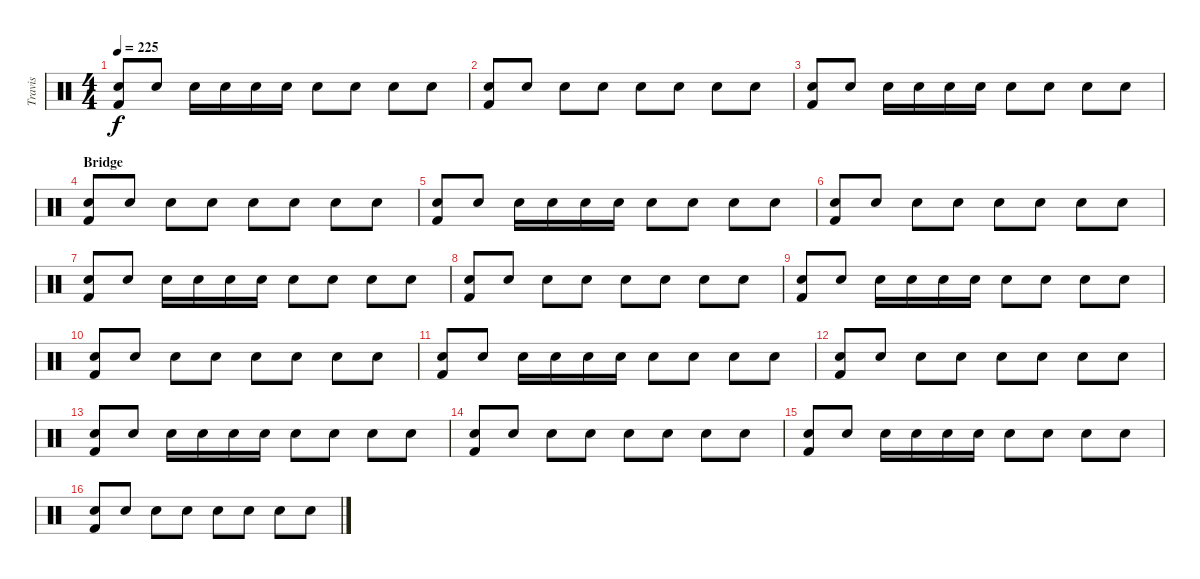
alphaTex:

\track ("Travis" "Travis") {instrument percussion}
\staff {score}
\articulation defaults
\ts (4 4)
\tempo 225
\clef neutral
\ks c
("Snare (hit) 2" "Kick (hit) 2").8{dy f} "Snare (hit) 2".8 "Snare (hit) 2".16 "Snare (hit) 2".16 "Snare (hit) 2".16 "Snare (hit) 2".16 "Electric Snare (hit)".8 "Electric Snare (hit)".8 "Snare (hit) 2".8 "Snare (hit) 2".8 |
("Snare (hit) 2" "Kick (hit) 2").8 "Snare (hit) 2".8 "Snare (hit) 2".8 "Electric Snare (hit)".8 "Snare (hit) 2".8 "Snare (hit) 2".8 "Electric Snare (hit)".8 "Snare (hit) 2".8 |
("Snare (hit) 2" "Kick (hit) 2").8 "Snare (hit) 2".8 "Snare (hit) 2".16 "Snare (hit) 2".16 "Snare (hit) 2".16 "Snare (hit) 2".16 "Electric Snare (hit)".8 "Electric Snare (hit)".8 "Snare (hit) 2".8 "Snare (hit) 2".8 |
\section ("" "Bridge")
("Snare (hit) 2" "Kick (hit) 2").8 "Snare (hit) 2".8 "Snare (hit) 2".8 "Electric Snare (hit)".8 "Snare (hit) 2".8 "Snare (hit) 2".8 "Electric Snare (hit)".8 "Snare (hit) 2".8 |
("Snare (hit) 2" "Kick (hit) 2").8 "Snare (hit) 2".8 "Snare (hit) 2".16 "Snare (hit) 2".16 "Snare (hit) 2".16 "Snare (hit) 2".16 "Electric Snare (hit)".8 "Electric Snare (hit)".8 "Snare (hit) 2".8 "Snare (hit) 2".8 |
("Snare (hit) 2" "Kick (hit) 2").8 "Snare (hit) 2".8 "Snare (hit) 2".8 "Electric Snare (hit)".8 "Snare (hit) 2".8 "Snare (hit) 2".8 "Electric Snare (hit)".8 "Snare (hit) 2".8 |
("Snare (hit) 2" "Kick (hit) 2").8 "Snare (hit) 2".8 "Snare (hit) 2".16 "Snare (hit) 2".16 "Snare (hit) 2".16 "Snare (hit) 2".16 "Electric Snare (hit)".8 "Electric Snare (hit)".8 "Snare (hit) 2".8 "Snare (hit) 2".8 |
("Snare (hit) 2" "Kick (hit) 2").8 "Snare (hit) 2".8 "Snare (hit) 2".8 "Electric Snare (hit)".8 "Snare (hit) 2".8 "Snare (hit) 2".8 "Electric Snare (hit)".8 "Snare (hit) 2".8 |
("Snare (hit) 2" "Kick (hit) 2").8 "Snare (hit) 2".8 "Snare (hit) 2".16 "Snare (hit) 2".16 "Snare (hit) 2".16 "Snare (hit) 2".16 "Electric Snare (hit)".8 "Electric Snare (hit)".8 "Snare (hit) 2".8 "Snare (hit) 2".8 |
("Snare (hit) 2" "Kick (hit) 2").8 "Snare (hit) 2".8 "Snare (hit) 2".8 "Electric Snare (hit)".8 "Snare (hit) 2".8 "Snare (hit) 2".8 "Electric Snare (hit)".8 "Snare (hit) 2".8 |
("Snare (hit) 2" "Kick (hit) 2").8 "Snare (hit) 2".8 "Snare (hit) 2".16 "Snare (hit) 2".16 "Snare (hit) 2".16 "Snare (hit) 2".16 "Electric Snare (hit)".8 "Electric Snare (hit)".8 "Snare (hit) 2".8 "Snare (hit) 2".8 |
("Snare (hit) 2" "Kick (hit) 2").8 "Snare (hit) 2".8 "Snare (hit) 2".8 "Electric Snare (hit)".8 "Snare (hit) 2".8 "Snare (hit) 2".8 "Electric Snare (hit)".8 "Snare (hit) 2".8 |
("Snare (hit) 2" "Kick (hit) 2").8 "Snare (hit) 2".8 "Snare (hit) 2".16 "Snare (hit) 2".16 "Snare (hit) 2".16 "Snare (hit) 2".16 "Electric Snare (hit)".8 "Electric Snare (hit)".8 "Snare (hit) 2".8 "Snare (hit) 2".8 |
("Snare (hit) 2" "Kick (hit) 2").8 "Snare (hit) 2".8 "Snare (hit) 2".8 "Electric Snare (hit)".8 "Snare (hit) 2".8 "Snare (hit) 2".8 "Electric Snare (hit)".8 "Snare (hit) 2".8 |
("Snare (hit) 2" "Kick (hit) 2").8 "Snare (hit) 2".8 "Snare (hit) 2".16 "Snare (hit) 2".16 "Snare (hit) 2".16 "Snare (hit) 2".16 "Electric Snare (hit)".8 "Electric Snare (hit)".8 "Snare (hit) 2".8 "Snare (hit) 2".8 |
("Snare (hit) 2" "Kick (hit) 2").8 "Snare (hit) 2".8 "Snare (hit) 2".8 "Electric Snare (hit)".8 "Snare (hit) 2".8 "Snare (hit) 2".8 "Electric Snare (hit)".8 "Snare (hit) 2".8
